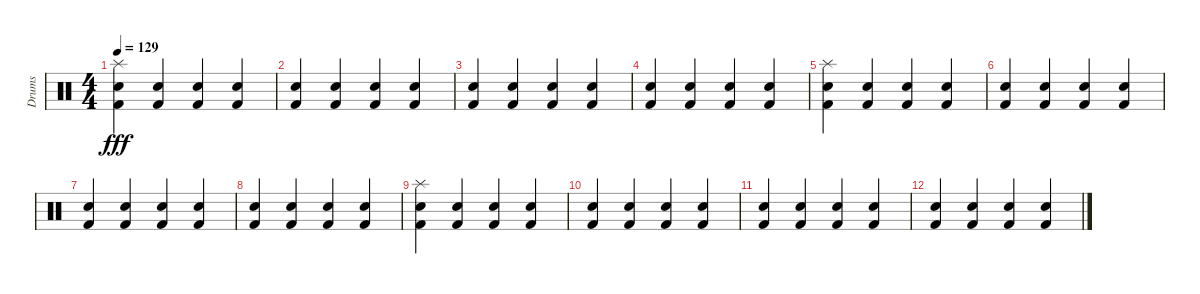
\track ("Drums" "Drums") {instrument percussion}
\staff {score}
\articulation defaults
\ts (4 4)
\tempo 129
\clef neutral
\ks c
("Splash (hit)" "Hand Clap (hit)" "Kick (hit) 2").4{dy fff} ("Hand Clap (hit)" "Kick (hit) 2").4 ("Hand Clap (hit)" "Kick (hit) 2").4 ("Hand Clap (hit)" "Kick (hit) 2").4 |
("Hand Clap (hit)" "Kick (hit) 2").4 ("Hand Clap (hit)" "Kick (hit) 2").4 ("Hand Clap (hit)" "Kick (hit) 2").4 ("Hand Clap (hit)" "Kick (hit) 2").4 |
("Hand Clap (hit)" "Kick (hit) 2").4 ("Hand Clap (hit)" "Kick (hit) 2").4 ("Hand Clap (hit)" "Kick (hit) 2").4 ("Hand Clap (hit)" "Kick (hit) 2").4 |
("Hand Clap (hit)" "Kick (hit) 2").4 ("Hand Clap (hit)" "Kick (hit) 2").4 ("Hand Clap (hit)" "Kick (hit) 2").4 ("Hand Clap (hit)" "Kick (hit) 2").4 |
("Splash (hit)" "Hand Clap (hit)" "Kick (hit) 2").4 ("Hand Clap (hit)" "Kick (hit) 2").4 ("Hand Clap (hit)" "Kick (hit) 2").4 ("Hand Clap (hit)" "Kick (hit) 2").4 |
("Hand Clap (hit)" "Kick (hit) 2").4 ("Hand Clap (hit)" "Kick (hit) 2").4 ("Hand Clap (hit)" "Kick (hit) 2").4 ("Hand Clap (hit)" "Kick (hit) 2").4 |
("Hand Clap (hit)" "Kick (hit) 2").4 ("Hand Clap (hit)" "Kick (hit) 2").4 ("Hand Clap (hit)" "Kick (hit) 2").4 ("Hand Clap (hit)" "Kick (hit) 2").4 |
("Hand Clap (hit)" "Kick (hit) 2").4 ("Hand Clap (hit)" "Kick (hit) 2").4 ("Hand Clap (hit)" "Kick (hit) 2").4 ("Hand Clap (hit)" "Kick (hit) 2").4 |
("Splash (hit)" "Hand Clap (hit)" "Kick (hit) 2").4 ("Hand Clap (hit)" "Kick (hit) 2").4 ("Hand Clap (hit)" "Kick (hit) 2").4 ("Hand Clap (hit)" "Kick (hit) 2").4 |
("Hand Clap (hit)" "Kick (hit) 2").4 ("Hand Clap (hit)" "Kick (hit) 2").4 ("Hand Clap (hit)" "Kick (hit) 2").4 ("Hand Clap (hit)" "Kick (hit) 2").4 |
("Hand Clap (hit)" "Kick (hit) 2").4 ("Hand Clap (hit)" "Kick (hit) 2").4 ("Hand Clap (hit)" "Kick (hit) 2").4 ("Hand Clap (hit)" "Kick (hit) 2").4 |
("Hand Clap (hit)" "Kick (hit) 2").4 ("Hand Clap (hit)" "Kick (hit) 2").4 ("Hand Clap (hit)" "Kick (hit) 2").4 ("Hand Clap (hit)" "Kick (hit) 2").4
